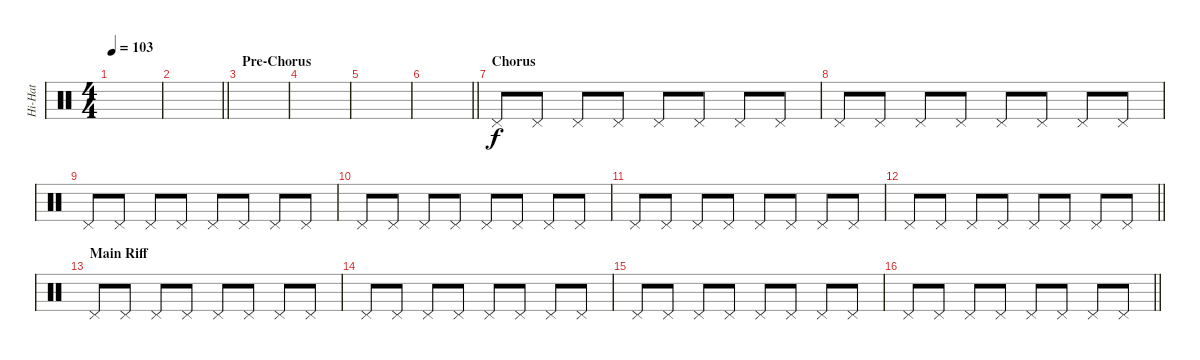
\track ("Hi-Hat" "Hi-Hat") {instrument percussion}
\staff {score}
\articulation defaults
\ts (4 4)
\tempo 103
\clef neutral
\ks c
|
\barLineRight lightlight
|
\section ("" "Pre-Chorus")
|
|
|
\barLineRight lightlight
|
\section ("" "Chorus")
"Pedal Hi-Hat (hit)".8 "Pedal Hi-Hat (hit)".8 "Pedal Hi-Hat (hit)".8 "Pedal Hi-Hat (hit)".8 "Pedal Hi-Hat (hit)".8 "Pedal Hi-Hat (hit)".8 "Pedal Hi-Hat (hit)".8 "Pedal Hi-Hat (hit)".8 |
"Pedal Hi-Hat (hit)".8 "Pedal Hi-Hat (hit)".8 "Pedal Hi-Hat (hit)".8 "Pedal Hi-Hat (hit)".8 "Pedal Hi-Hat (hit)".8 "Pedal Hi-Hat (hit)".8 "Pedal Hi-Hat (hit)".8 "Pedal Hi-Hat (hit)".8 |
"Pedal Hi-Hat (hit)".8 "Pedal Hi-Hat (hit)".8 "Pedal Hi-Hat (hit)".8 "Pedal Hi-Hat (hit)".8 "Pedal Hi-Hat (hit)".8 "Pedal Hi-Hat (hit)".8 "Pedal Hi-Hat (hit)".8 "Pedal Hi-Hat (hit)".8 |
"Pedal Hi-Hat (hit)".8 "Pedal Hi-Hat (hit)".8 "Pedal Hi-Hat (hit)".8 "Pedal Hi-Hat (hit)".8 "Pedal Hi-Hat (hit)".8 "Pedal Hi-Hat (hit)".8 "Pedal Hi-Hat (hit)".8 "Pedal Hi-Hat (hit)".8 |
"Pedal Hi-Hat (hit)".8 "Pedal Hi-Hat (hit)".8 "Pedal Hi-Hat (hit)".8 "Pedal Hi-Hat (hit)".8 "Pedal Hi-Hat (hit)".8 "Pedal Hi-Hat (hit)".8 "Pedal Hi-Hat (hit)".8 "Pedal Hi-Hat (hit)".8 |
\barLineRight lightlight "Pedal Hi-Hat (hit)".8 "Pedal Hi-Hat (hit)".8 "Pedal Hi-Hat (hit)".8 "Pedal Hi-Hat (hit)".8 "Pedal Hi-Hat (hit)".8 "Pedal Hi-Hat (hit)".8 "Pedal Hi-Hat (hit)".8 "Pedal Hi-Hat (hit)".8
|
\section ("" "Main Riff")
"Pedal Hi-Hat (hit)".8 "Pedal Hi-Hat (hit)".8 "Pedal Hi-Hat (hit)".8 "Pedal Hi-Hat (hit)".8 "Pedal Hi-Hat (hit)".8 "Pedal Hi-Hat (hit)".8 "Pedal Hi-Hat (hit)".8 "Pedal Hi-Hat (hit)".8 |
"Pedal Hi-Hat (hit)".8 "Pedal Hi-Hat (hit)".8 "Pedal Hi-Hat (hit)".8 "Pedal Hi-Hat (hit)".8 "Pedal Hi-Hat (hit)".8 "Pedal Hi-Hat (hit)".8 "Pedal Hi-Hat (hit)".8 "Pedal Hi-Hat (hit)".8 |
"Pedal Hi-Hat (hit)".8 "Pedal Hi-Hat (hit)".8 "Pedal Hi-Hat (hit)".8 "Pedal Hi-Hat (hit)".8 "Pedal Hi-Hat (hit)".8 "Pedal Hi-Hat (hit)".8 "Pedal Hi-Hat (hit)".8 "Pedal Hi-Hat (hit)".8 |
\barLineRight lightlight "Pedal Hi-Hat (hit)".8 "Pedal Hi-Hat (hit)".8 "Pedal Hi-Hat (hit)".8 "Pedal Hi-Hat (hit)".8 "Pedal Hi-Hat (hit)".8 "Pedal Hi-Hat (hit)".8 "Pedal Hi-Hat (hit)".8 "Pedal Hi-Hat (hit)".8
